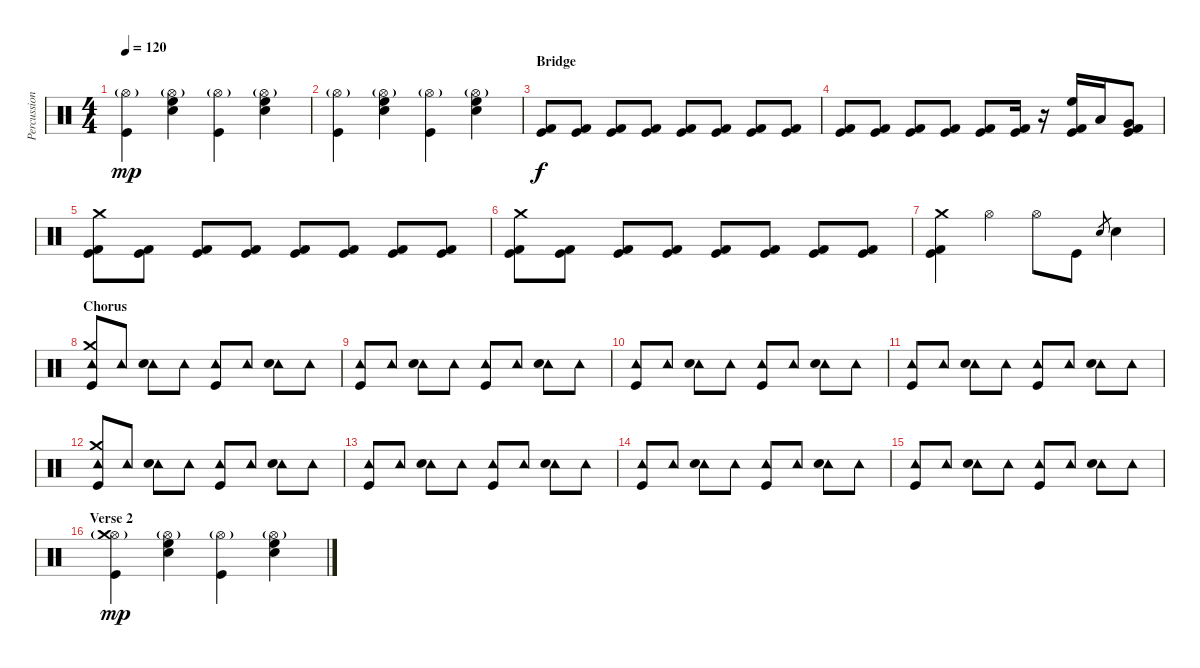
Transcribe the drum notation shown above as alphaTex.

\track ("Percussion" "Percussion") {instrument percussion}
\staff {score}
\articulation defaults
\ts (4 4)
\tempo 120
\clef neutral
\ks c
("Hi-Hat (open)"{g} "Kick (hit)").4{dy mp} ("Hi-Hat (open)"{g} "High Floor Tom (hit)" "Electric Snare (hit)").4 ("Hi-Hat (open)"{g} "Kick (hit)").4 ("Hi-Hat (open)"{g} "High Floor Tom (hit)" "Electric Snare (hit)").4 |
("Hi-Hat (open)"{g} "Kick (hit)").4 ("Hi-Hat (open)"{g} "High Floor Tom (hit)" "Electric Snare (hit)").4 ("Hi-Hat (open)"{g} "Kick (hit)").4 ("Hi-Hat (open)"{g} "High Floor Tom (hit)" "Electric Snare (hit)").4 |
\section ("" "Bridge")
("Kick (hit) 2" "Kick (hit)").8{dy f} ("Kick (hit) 2" "Kick (hit)").8 ("Kick (hit) 2" "Kick (hit)").8 ("Kick (hit) 2" "Kick (hit)").8 ("Kick (hit) 2" "Kick (hit)").8 ("Kick (hit) 2" "Kick (hit)").8 ("Kick (hit) 2" "Kick (hit)").8 ("Kick (hit) 2" "Kick (hit)").8 |
("Kick (hit) 2" "Kick (hit)").8 ("Kick (hit) 2" "Kick (hit)").8 ("Kick (hit) 2" "Kick (hit)").8 ("Kick (hit) 2" "Kick (hit)").8 ("Kick (hit) 2" "Kick (hit)").8 ("Kick (hit) 2" "Kick (hit)").16 r.16 ("High Floor Tom (hit)" "Kick (hit) 2" "Kick (hit)").16 "Low Tom (hit)".16 ("Very Low Tom (hit)" "Kick (hit) 2" "Kick (hit)").8 |
("Crash medium (hit)" "Kick (hit) 2" "Kick (hit)").8 ("Kick (hit) 2" "Kick (hit)").8 ("Kick (hit) 2" "Kick (hit)").8 ("Kick (hit) 2" "Kick (hit)").8 ("Kick (hit) 2" "Kick (hit)").8 ("Kick (hit) 2" "Kick (hit)").8 ("Kick (hit) 2" "Kick (hit)").8 ("Kick (hit) 2" "Kick (hit)").8 |
("Crash medium (hit)" "Kick (hit) 2" "Kick (hit)").8 ("Kick (hit) 2" "Kick (hit)").8 ("Kick (hit) 2" "Kick (hit)").8 ("Kick (hit) 2" "Kick (hit)").8 ("Kick (hit) 2" "Kick (hit)").8 ("Kick (hit) 2" "Kick (hit)").8 ("Kick (hit) 2" "Kick (hit)").8 ("Kick (hit) 2" "Kick (hit)").8 |
("Crash medium (hit)" "Kick (hit) 2" "Kick (hit)").4 "Hi-Hat (open)".4 "Hi-Hat (open)".8 "Kick (hit)".8 "Electric Snare (hit)".8{gr} "Electric Snare (hit)".4 |
\section ("" "Chorus")
("Crash medium (hit)" "Tambourine (hit)" "Kick (hit)").8 "Tambourine (hit)".8 ("Tambourine (hit)" "Electric Snare (hit)").8 "Tambourine (hit)".8 ("Tambourine (hit)" "Kick (hit)").8 "Tambourine (hit)".8 ("Tambourine (hit)" "Electric Snare (hit)").8 "Tambourine (hit)".8 |
("Tambourine (hit)" "Kick (hit)").8 "Tambourine (hit)".8 ("Tambourine (hit)" "Electric Snare (hit)").8 "Tambourine (hit)".8 ("Tambourine (hit)" "Kick (hit)").8 "Tambourine (hit)".8 ("Tambourine (hit)" "Electric Snare (hit)").8 "Tambourine (hit)".8 |
("Tambourine (hit)" "Kick (hit)").8 "Tambourine (hit)".8 ("Tambourine (hit)" "Electric Snare (hit)").8 "Tambourine (hit)".8 ("Tambourine (hit)" "Kick (hit)").8 "Tambourine (hit)".8 ("Tambourine (hit)" "Electric Snare (hit)").8 "Tambourine (hit)".8 |
("Tambourine (hit)" "Kick (hit)").8 "Tambourine (hit)".8 ("Tambourine (hit)" "Electric Snare (hit)").8 "Tambourine (hit)".8 ("Tambourine (hit)" "Kick (hit)").8 "Tambourine (hit)".8 ("Tambourine (hit)" "Electric Snare (hit)").8 "Tambourine (hit)".8 |
("Crash medium (hit)" "Tambourine (hit)" "Kick (hit)").8 "Tambourine (hit)".8 ("Tambourine (hit)" "Electric Snare (hit)").8 "Tambourine (hit)".8 ("Tambourine (hit)" "Kick (hit)").8 "Tambourine (hit)".8 ("Tambourine (hit)" "Electric Snare (hit)").8 "Tambourine (hit)".8 |
("Tambourine (hit)" "Kick (hit)").8 "Tambourine (hit)".8 ("Tambourine (hit)" "Electric Snare (hit)").8 "Tambourine (hit)".8 ("Tambourine (hit)" "Kick (hit)").8 "Tambourine (hit)".8 ("Tambourine (hit)" "Electric Snare (hit)").8 "Tambourine (hit)".8 |
("Tambourine (hit)" "Kick (hit)").8 "Tambourine (hit)".8 ("Tambourine (hit)" "Electric Snare (hit)").8 "Tambourine (hit)".8 ("Tambourine (hit)" "Kick (hit)").8 "Tambourine (hit)".8 ("Tambourine (hit)" "Electric Snare (hit)").8 "Tambourine (hit)".8 |
("Tambourine (hit)" "Kick (hit)").8 "Tambourine (hit)".8 ("Tambourine (hit)" "Electric Snare (hit)").8 "Tambourine (hit)".8 ("Tambourine (hit)" "Kick (hit)").8 "Tambourine (hit)".8 ("Tambourine (hit)" "Electric Snare (hit)").8 "Tambourine (hit)".8 |
\section ("" "Verse 2")
("Hi-Hat (open)"{g} "Crash medium (hit)" "Kick (hit)").4{dy mp} ("Hi-Hat (open)"{g} "High Floor Tom (hit)" "Electric Snare (hit)").4 ("Hi-Hat (open)"{g} "Kick (hit)").4 ("Hi-Hat (open)"{g} "High Floor Tom (hit)" "Electric Snare (hit)").4
